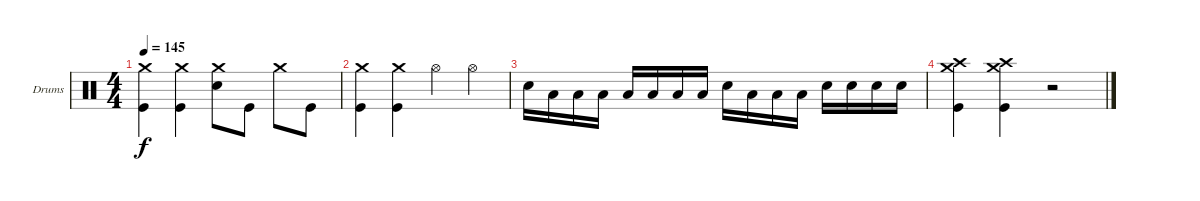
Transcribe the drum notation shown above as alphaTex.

\bracketExtendMode groupsimilarinstruments
\firstSystemTrackNameOrientation horizontal
\otherSystemsTrackNameOrientation horizontal
\track ("Drumkit" "Drums") {instrument percussion}
\staff {score}
\articulation defaults
\ts (4 4)
\tempo 145
\clef neutral
\ks c
("Crash medium (hit)" "Kick (hit)").4{dy f} ("Crash medium (hit)" "Kick (hit)").4 ("Crash medium (hit)" "Snare (hit) 2").8 "Kick (hit)".8 "Crash medium (hit)".8 "Kick (hit)".8 |
("Crash medium (hit)" "Kick (hit)").4 ("Crash medium (hit)" "Kick (hit)").4 "Hi-Hat (open)".4 "Hi-Hat (open)".4 |
"Snare (hit) 2".16 "Low Tom (hit)".16 "Low Tom (hit)".16 "Low Tom (hit)".16 "Low Tom (hit)".16 "Low Tom (hit)".16 "Low Tom (hit)".16 "Low Tom (hit)".16 "Snare (hit) 2".16 "Low Tom (hit)".16 "Low Tom (hit)".16 "Low Tom (hit)".16 "Snare (hit) 2".16 "Snare (hit) 2".16 "Snare (hit) 2".16 "Snare (hit) 2".16 |
("Crash medium (hit)" "Crash high (hit)" "Kick (hit)").4 ("Crash medium (hit)" "Crash high (hit)" "Kick (hit)").4 r.2
